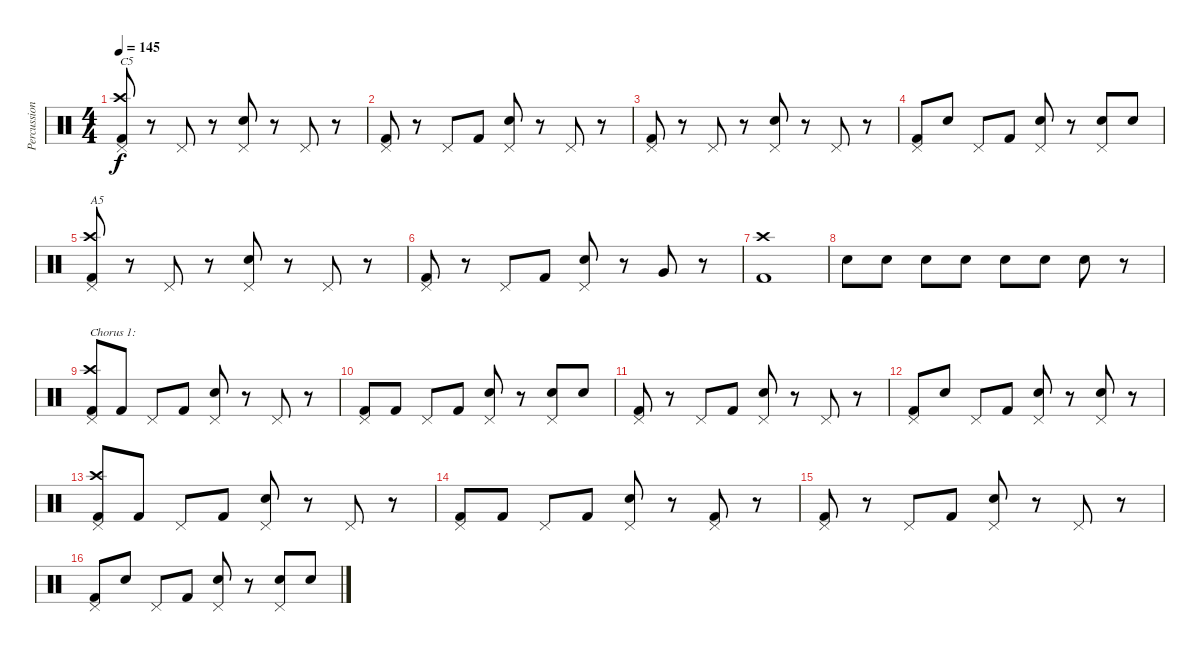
\track ("Percussion" "Percussion") {instrument percussion}
\staff {score}
\articulation defaults
\ts (4 4)
\tempo 145
\clef neutral
\ks c
("Pedal Hi-Hat (hit)" "Crash high (hit)" "Kick (hit) 2").8{txt "C5" dy f} r.8 "Pedal Hi-Hat (hit)".8 r.8 ("Pedal Hi-Hat (hit)" "Electric Snare (hit)").8 r.8 "Pedal Hi-Hat (hit)".8 r.8 |
("Pedal Hi-Hat (hit)" "Kick (hit) 2").8 r.8 "Pedal Hi-Hat (hit)".8 "Kick (hit) 2".8 ("Pedal Hi-Hat (hit)" "Electric Snare (hit)").8 r.8 "Pedal Hi-Hat (hit)".8 r.8 |
("Pedal Hi-Hat (hit)" "Kick (hit) 2").8 r.8 "Pedal Hi-Hat (hit)".8 r.8 ("Pedal Hi-Hat (hit)" "Electric Snare (hit)").8 r.8 "Pedal Hi-Hat (hit)".8 r.8 |
("Pedal Hi-Hat (hit)" "Kick (hit) 2").8 "Electric Snare (hit)".8 "Pedal Hi-Hat (hit)".8 "Kick (hit) 2".8 ("Pedal Hi-Hat (hit)" "Electric Snare (hit)").8 r.8 ("Pedal Hi-Hat (hit)" "Electric Snare (hit)").8 "Electric Snare (hit)".8 |
("Pedal Hi-Hat (hit)" "Crash high (hit)" "Kick (hit) 2").8{txt "A5"} r.8 "Pedal Hi-Hat (hit)".8 r.8 ("Pedal Hi-Hat (hit)" "Electric Snare (hit)").8 r.8 "Pedal Hi-Hat (hit)".8 r.8 |
("Pedal Hi-Hat (hit)" "Kick (hit) 2").8 r.8 "Pedal Hi-Hat (hit)".8 "Kick (hit) 2".8 ("Pedal Hi-Hat (hit)" "Electric Snare (hit)").8 r.8 "Very Low Tom (hit)".8 r.8 |
("Crash high (hit)" "Kick (hit) 2").1 |
"Electric Snare (hit)".8 "Electric Snare (hit)".8 "Electric Snare (hit)".8 "Electric Snare (hit)".8 "Electric Snare (hit)".8 "Electric Snare (hit)".8 "Electric Snare (hit)".8 r.8 |
("Pedal Hi-Hat (hit)" "Crash high (hit)" "Kick (hit) 2").8{txt "Chorus 1:"} "Kick (hit) 2".8 "Pedal Hi-Hat (hit)".8 "Kick (hit) 2".8 ("Pedal Hi-Hat (hit)" "Electric Snare (hit)").8 r.8 "Pedal Hi-Hat (hit)".8 r.8 |
("Pedal Hi-Hat (hit)" "Kick (hit) 2").8 "Kick (hit) 2".8 "Pedal Hi-Hat (hit)".8 "Kick (hit) 2".8 ("Pedal Hi-Hat (hit)" "Electric Snare (hit)").8 r.8 ("Pedal Hi-Hat (hit)" "Electric Snare (hit)").8 "Electric Snare (hit)".8 |
("Pedal Hi-Hat (hit)" "Kick (hit) 2").8 r.8 "Pedal Hi-Hat (hit)".8 "Kick (hit) 2".8 ("Pedal Hi-Hat (hit)" "Electric Snare (hit)").8 r.8 "Pedal Hi-Hat (hit)".8 r.8 |
("Pedal Hi-Hat (hit)" "Kick (hit) 2").8 "Electric Snare (hit)".8 "Pedal Hi-Hat (hit)".8 "Kick (hit) 2".8 ("Pedal Hi-Hat (hit)" "Electric Snare (hit)").8 r.8 ("Pedal Hi-Hat (hit)" "Electric Snare (hit)").8 r.8 |
("Pedal Hi-Hat (hit)" "Crash high (hit)" "Kick (hit) 2").8 "Kick (hit) 2".8 "Pedal Hi-Hat (hit)".8 "Kick (hit) 2".8 ("Pedal Hi-Hat (hit)" "Electric Snare (hit)").8 r.8 "Pedal Hi-Hat (hit)".8 r.8 |
("Pedal Hi-Hat (hit)" "Kick (hit) 2").8 "Kick (hit) 2".8 "Pedal Hi-Hat (hit)".8 "Kick (hit) 2".8 ("Pedal Hi-Hat (hit)" "Electric Snare (hit)").8 r.8 ("Pedal Hi-Hat (hit)" "Kick (hit) 2").8 r.8 |
("Pedal Hi-Hat (hit)" "Kick (hit) 2").8 r.8 "Pedal Hi-Hat (hit)".8 "Kick (hit) 2".8 ("Pedal Hi-Hat (hit)" "Electric Snare (hit)").8 r.8 "Pedal Hi-Hat (hit)".8 r.8 |
("Pedal Hi-Hat (hit)" "Kick (hit) 2").8 "Electric Snare (hit)".8 "Pedal Hi-Hat (hit)".8 "Kick (hit) 2".8 ("Pedal Hi-Hat (hit)" "Electric Snare (hit)").8 r.8 ("Pedal Hi-Hat (hit)" "Electric Snare (hit)").8 "Electric Snare (hit)".8
